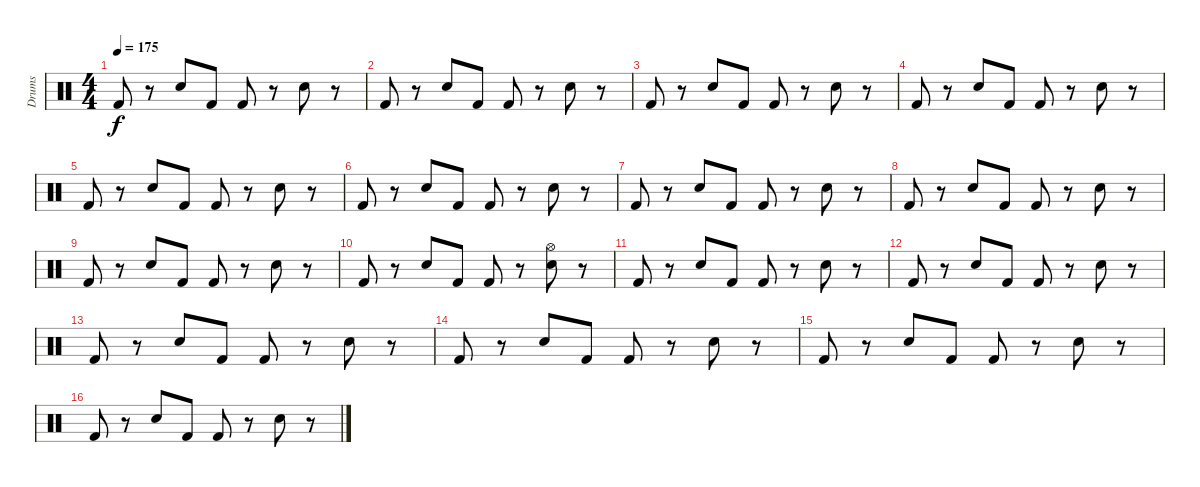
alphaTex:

\track ("Drums" "Drums") {instrument percussion}
\staff {score}
\articulation defaults
\ts (4 4)
\tempo 175
\clef neutral
\ks c "Kick (hit) 2".8{dy f}
r.8 "Electric Snare (hit)".8 "Kick (hit) 2".8 "Kick (hit) 2".8 r.8 "Electric Snare (hit)".8 r.8 |
"Kick (hit) 2".8 r.8 "Electric Snare (hit)".8 "Kick (hit) 2".8 "Kick (hit) 2".8 r.8 "Electric Snare (hit)".8 r.8 |
"Kick (hit) 2".8 r.8 "Electric Snare (hit)".8 "Kick (hit) 2".8 "Kick (hit) 2".8 r.8 "Electric Snare (hit)".8 r.8 |
"Kick (hit) 2".8 r.8 "Electric Snare (hit)".8 "Kick (hit) 2".8 "Kick (hit) 2".8 r.8 "Electric Snare (hit)".8 r.8 |
"Kick (hit) 2".8 r.8 "Electric Snare (hit)".8 "Kick (hit) 2".8 "Kick (hit) 2".8 r.8 "Electric Snare (hit)".8 r.8 |
"Kick (hit) 2".8 r.8 "Electric Snare (hit)".8 "Kick (hit) 2".8 "Kick (hit) 2".8 r.8 "Electric Snare (hit)".8 r.8 |
"Kick (hit) 2".8 r.8 "Electric Snare (hit)".8 "Kick (hit) 2".8 "Kick (hit) 2".8 r.8 "Electric Snare (hit)".8 r.8 |
"Kick (hit) 2".8 r.8 "Electric Snare (hit)".8 "Kick (hit) 2".8 "Kick (hit) 2".8 r.8 "Electric Snare (hit)".8 r.8 |
"Kick (hit) 2".8 r.8 "Electric Snare (hit)".8 "Kick (hit) 2".8 "Kick (hit) 2".8 r.8 "Electric Snare (hit)".8 r.8 |
"Kick (hit) 2".8 r.8 "Electric Snare (hit)".8 "Kick (hit) 2".8 "Kick (hit) 2".8 r.8 ("Hi-Hat (open)" "Electric Snare (hit)").8 r.8 |
"Kick (hit) 2".8 r.8 "Electric Snare (hit)".8 "Kick (hit) 2".8 "Kick (hit) 2".8 r.8 "Electric Snare (hit)".8 r.8 |
"Kick (hit) 2".8 r.8 "Electric Snare (hit)".8 "Kick (hit) 2".8 "Kick (hit) 2".8 r.8 "Electric Snare (hit)".8 r.8 |
"Kick (hit) 2".8 r.8 "Electric Snare (hit)".8 "Kick (hit) 2".8 "Kick (hit) 2".8 r.8 "Electric Snare (hit)".8 r.8 |
"Kick (hit) 2".8 r.8 "Electric Snare (hit)".8 "Kick (hit) 2".8 "Kick (hit) 2".8 r.8 "Electric Snare (hit)".8 r.8 |
"Kick (hit) 2".8 r.8 "Electric Snare (hit)".8 "Kick (hit) 2".8 "Kick (hit) 2".8 r.8 "Electric Snare (hit)".8 r.8 |
"Kick (hit) 2".8 r.8 "Electric Snare (hit)".8 "Kick (hit) 2".8 "Kick (hit) 2".8 r.8 "Electric Snare (hit)".8 r.8
